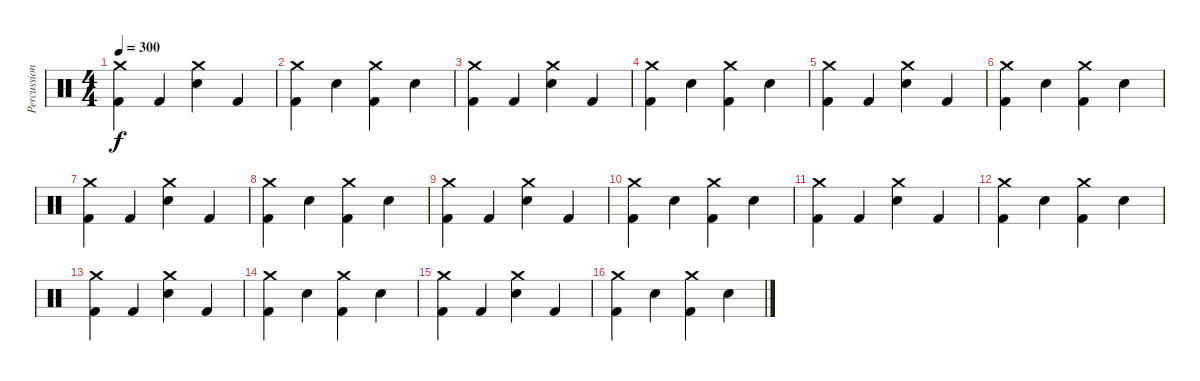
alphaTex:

\track ("Percussion" "Percussion") {instrument percussion}
\staff {score}
\articulation defaults
\ts (4 4)
\tempo 300
\clef neutral
\ks c
("Kick (hit) 2" "Crash medium (hit)").4{dy f} "Kick (hit) 2".4 ("Snare (hit) 2" "Crash medium (hit)").4 "Kick (hit) 2".4 |
("Kick (hit) 2" "Crash medium (hit)").4 "Snare (hit) 2".4 ("Kick (hit) 2" "Crash medium (hit)").4 "Snare (hit) 2".4 |
("Kick (hit) 2" "Crash medium (hit)").4 "Kick (hit) 2".4 ("Snare (hit) 2" "Crash medium (hit)").4 "Kick (hit) 2".4 |
("Kick (hit) 2" "Crash medium (hit)").4 "Snare (hit) 2".4 ("Kick (hit) 2" "Crash medium (hit)").4 "Snare (hit) 2".4 |
("Kick (hit) 2" "Crash medium (hit)").4 "Kick (hit) 2".4 ("Snare (hit) 2" "Crash medium (hit)").4 "Kick (hit) 2".4 |
("Kick (hit) 2" "Crash medium (hit)").4 "Snare (hit) 2".4 ("Kick (hit) 2" "Crash medium (hit)").4 "Snare (hit) 2".4 |
("Kick (hit) 2" "Crash medium (hit)").4 "Kick (hit) 2".4 ("Snare (hit) 2" "Crash medium (hit)").4 "Kick (hit) 2".4 |
("Kick (hit) 2" "Crash medium (hit)").4 "Snare (hit) 2".4 ("Kick (hit) 2" "Crash medium (hit)").4 "Snare (hit) 2".4 |
("Kick (hit) 2" "Crash medium (hit)").4 "Kick (hit) 2".4 ("Snare (hit) 2" "Crash medium (hit)").4 "Kick (hit) 2".4 |
("Kick (hit) 2" "Crash medium (hit)").4 "Snare (hit) 2".4 ("Kick (hit) 2" "Crash medium (hit)").4 "Snare (hit) 2".4 |
("Kick (hit) 2" "Crash medium (hit)").4 "Kick (hit) 2".4 ("Snare (hit) 2" "Crash medium (hit)").4 "Kick (hit) 2".4 |
("Kick (hit) 2" "Crash medium (hit)").4 "Snare (hit) 2".4 ("Kick (hit) 2" "Crash medium (hit)").4 "Snare (hit) 2".4 |
("Kick (hit) 2" "Crash medium (hit)").4 "Kick (hit) 2".4 ("Snare (hit) 2" "Crash medium (hit)").4 "Kick (hit) 2".4 |
("Kick (hit) 2" "Crash medium (hit)").4 "Snare (hit) 2".4 ("Kick (hit) 2" "Crash medium (hit)").4 "Snare (hit) 2".4 |
("Kick (hit) 2" "Crash medium (hit)").4 "Kick (hit) 2".4 ("Snare (hit) 2" "Crash medium (hit)").4 "Kick (hit) 2".4 |
("Kick (hit) 2" "Crash medium (hit)").4 "Snare (hit) 2".4 ("Kick (hit) 2" "Crash medium (hit)").4 "Snare (hit) 2".4
